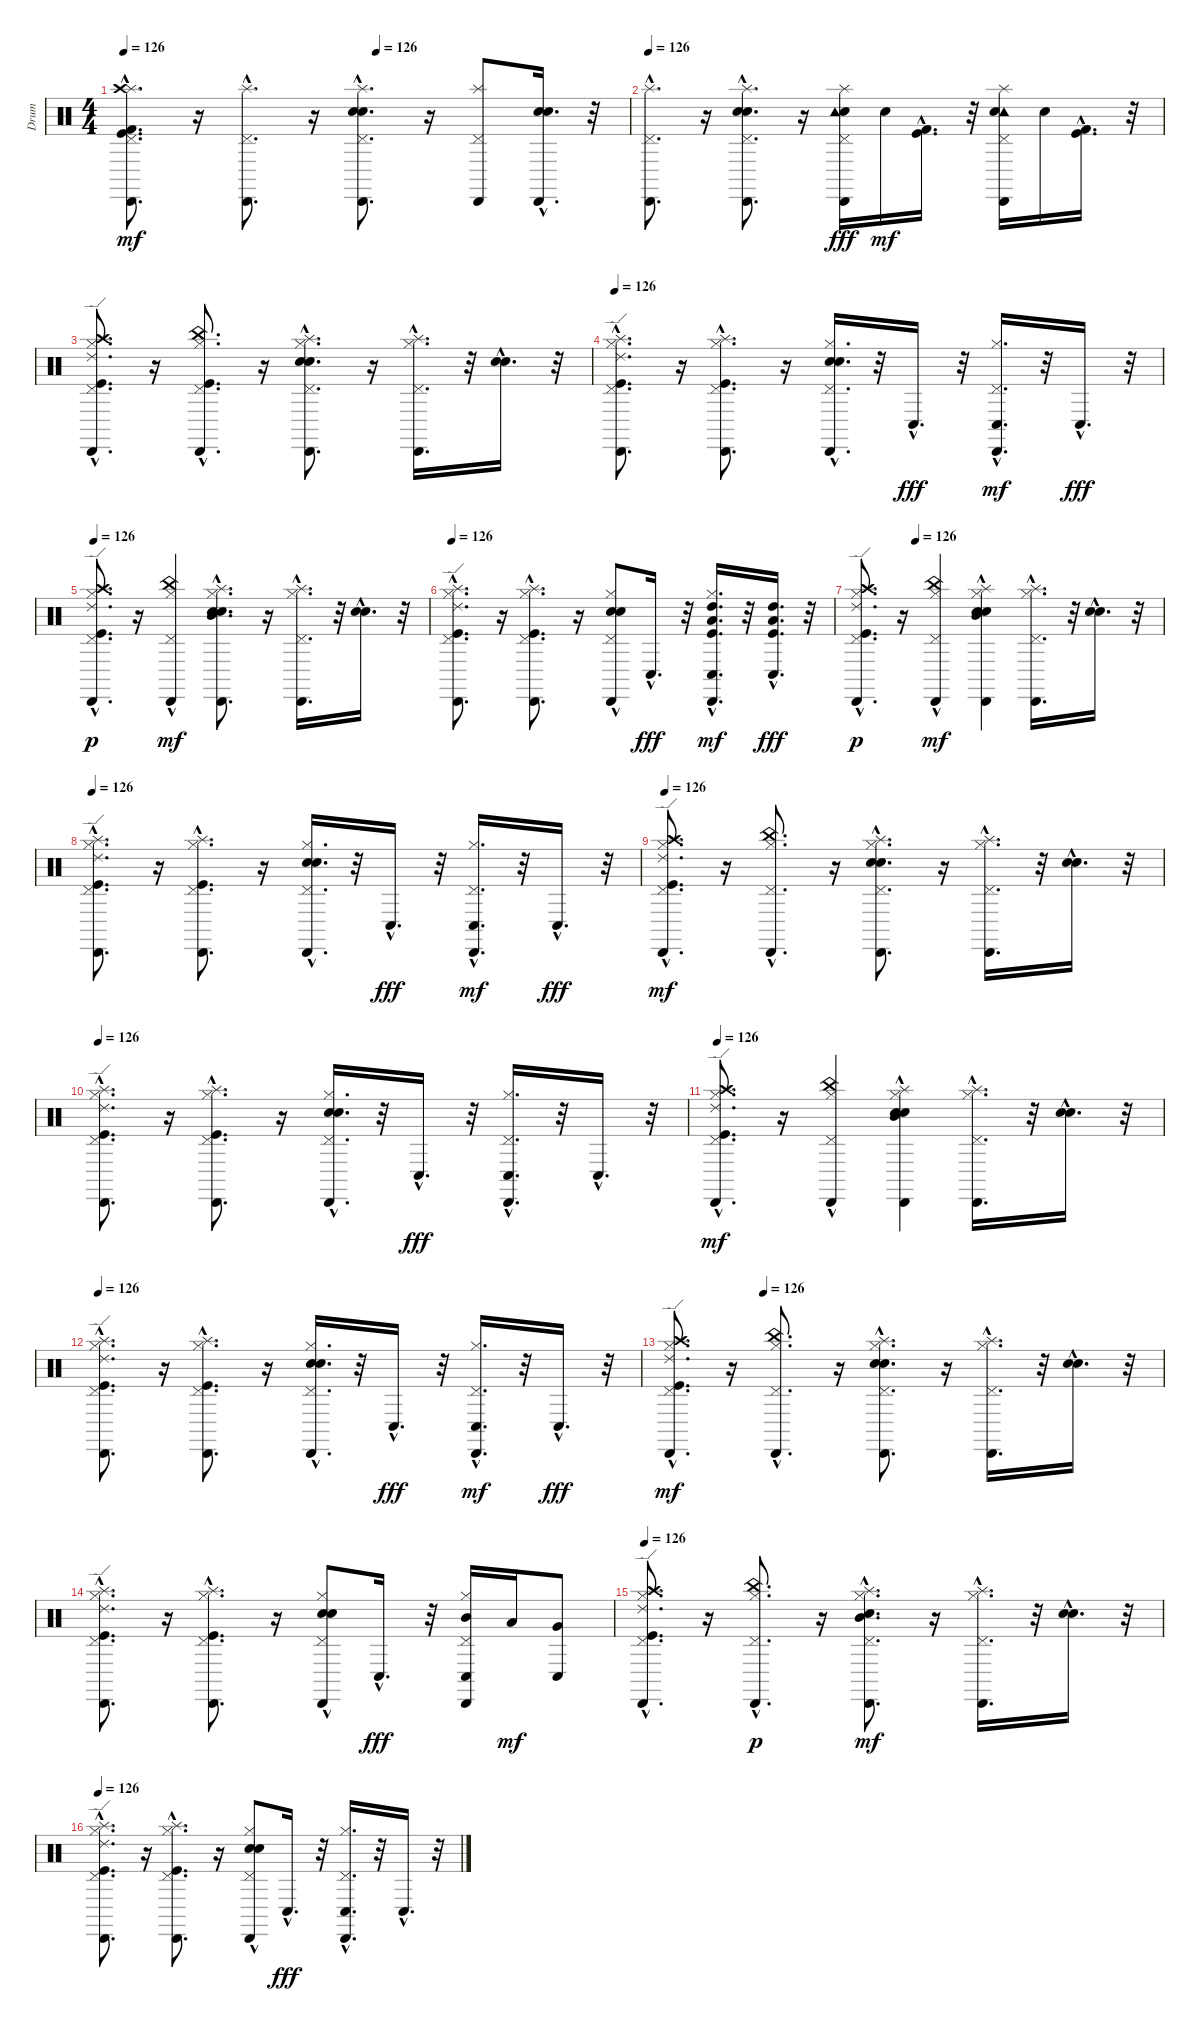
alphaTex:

\track ("Drum" "Drum") {instrument percussion}
\staff {score}
\articulation defaults
\ts (4 4)
\tempo 126
\tempo (126 0.5)
\clef neutral
\ks c
("Splash (hit)"{hac} "Kick (hit) 2"{hac} "Cabasa (hit)"{hac} "Crash high (hit)"{hac} "Pedal Hi-Hat (hit)"{hac} "Kick (hit)"{hac}).8{d dy mf} r.16 ("Splash (hit)"{hac} "Cabasa (hit)"{hac} "Pedal Hi-Hat (hit)"{hac}).8{d} r.16 ("Splash (hit)"{hac} "Electric Snare (hit)"{hac} "Cabasa (hit)"{hac} "Snare (hit) 2"{hac} "Pedal Hi-Hat (hit)"{hac}).8{d} r.16 ("Splash (hit)" "Cabasa (hit)" "Pedal Hi-Hat (hit)").8 ("Electric Snare (hit)"{hac} "Cabasa (hit)"{hac} "Snare (hit) 2"{hac}).16{d} r.32 |
\tempo 126
("Splash (hit)"{hac} "Cabasa (hit)"{hac} "Pedal Hi-Hat (hit)"{hac}).8{d} r.16 ("Splash (hit)"{hac} "Cabasa (hit)"{hac} "Pedal Hi-Hat (hit)"{hac} "Electric Snare (hit)"{hac} "Snare (hit) 2"{hac}).8{d} r.16 ("Snare (hit) 2" "Splash (hit)" "Cabasa (hit)" "Pedal Hi-Hat (hit)" "Tambourine (hit)").16{dy fff} "Snare (hit) 2".16{dy mf} ("Kick (hit)"{hac} "Kick (hit) 2"{hac}).16{d} r.32 ("Tambourine (hit)" "Pedal Hi-Hat (hit)" "Cabasa (hit)" "Splash (hit)" "Snare (hit) 2").16 "Snare (hit) 2".16 ("Kick (hit)"{hac} "Kick (hit) 2"{hac}).16{d} r.32 |
("Hi-Hat (closed)"{hac} "Cabasa (hit)"{hac} "Pedal Hi-Hat (hit)"{hac} "Ride (edge) 2"{hac} "Kick (hit)"{hac} "Crash high (hit)"{hac}).8{d} r.16 ("Cabasa (hit)"{hac} "Kick (hit)"{hac} "Hi-Hat (closed)"{hac} "Pedal Hi-Hat (hit)"{hac} "China (hit)"{hac}).8{d} r.16 ("Snare (hit) 2"{hac} "Cabasa (hit)"{hac} "Electric Snare (hit)"{hac} "Splash (hit)"{hac} "Pedal Hi-Hat (hit)"{hac} "Hi-Hat (closed)"{hac}).8{d} r.16 ("Hi-Hat (closed)"{hac} "Cabasa (hit)"{hac} "Pedal Hi-Hat (hit)"{hac} "Splash (hit)"{hac}).16{d} r.32 ("Snare (hit) 2"{hac} "Electric Snare (hit)"{hac}).16{d} r.32 |
\tempo 126
("Pedal Hi-Hat (hit)"{hac} "Kick (hit)"{hac} "Splash (hit)"{hac} "Hi-Hat (closed)"{hac} "Cabasa (hit)"{hac} "Ride (edge) 2"{hac}).8{d} r.16 ("Pedal Hi-Hat (hit)"{hac} "Splash (hit)"{hac} "Kick (hit)"{hac} "Hi-Hat (closed)"{hac} "Cabasa (hit)"{hac}).8{d} r.16 ("Cabasa (hit)"{hac} "Electric Snare (hit)"{hac} "Snare (hit) 2"{hac} "Pedal Hi-Hat (hit)"{hac} "Hi-Hat (closed)"{hac}).16{d} r.32 "Conga low (hit)"{hac}.16{d dy fff} r.32 ("Pedal Hi-Hat (hit)"{hac} "Conga low (hit)"{hac} "Hi-Hat (closed)"{hac} "Cabasa (hit)"{hac}).16{d dy mf} r.32 "Conga low (hit)"{hac}.16{d dy fff} r.32 |
\tempo 126
("Cabasa (hit)"{hac} "Ride (edge) 2"{hac} "Hi-Hat (closed)"{hac} "Kick (hit)"{hac} "Pedal Hi-Hat (hit)"{hac} "Crash high (hit)"{hac}).8{d dy p} r.16 ("China (hit)"{hac} "Cabasa (hit)"{hac} "Pedal Hi-Hat (hit)"{hac} "Hi-Hat (closed)"{hac}).4{dy mf} ("Electric Snare (hit)"{hac} "Snare (hit) 2"{hac} "Cabasa (hit)"{hac} "Splash (hit)"{hac} "Mid Tom (hit)"{hac} "Hi-Hat (closed)"{hac}).8{d} r.16 ("Cabasa (hit)"{hac} "Splash (hit)"{hac} "Hi-Hat (closed)"{hac} "Pedal Hi-Hat (hit)"{hac}).16{d} r.32 ("Snare (hit) 2"{hac} "Electric Snare (hit)"{hac}).16{d} r.32 |
\tempo 126
("Ride (edge) 2"{hac} "Splash (hit)"{hac} "Pedal Hi-Hat (hit)"{hac} "Cabasa (hit)"{hac} "Hi-Hat (closed)"{hac} "Kick (hit)"{hac}).8{d} r.16 ("Splash (hit)"{hac} "Cabasa (hit)"{hac} "Kick (hit)"{hac} "Hi-Hat (closed)"{hac} "Pedal Hi-Hat (hit)"{hac}).8{d} r.16 ("Snare (hit) 2"{hac} "Electric Snare (hit)"{hac} "Cabasa (hit)"{hac} "Pedal Hi-Hat (hit)" "Hi-Hat (closed)"{hac}).8 "Conga low (hit)"{hac}.16{d dy fff} r.32 ("High Tom (hit)"{hac} "Cabasa (hit)"{hac} "Kick (hit)"{hac} "Low Tom (hit)"{hac} "Conga low (hit)"{hac} "Hi-Hat (closed)"{hac}).16{d dy mf} r.32 ("Kick (hit)"{hac} "Conga low (hit)"{hac} "Low Tom (hit)"{hac} "High Tom (hit)"{hac}).16{d dy fff} r.32 |
\tempo (126 0.1875)
("Ride (edge) 2"{hac} "Cabasa (hit)"{hac} "Hi-Hat (closed)"{hac} "Pedal Hi-Hat (hit)"{hac} "Kick (hit)"{hac} "Crash high (hit)"{hac}).8{d dy p} r.16 ("China (hit)"{hac} "Cabasa (hit)"{hac} "Hi-Hat (closed)"{hac} "Pedal Hi-Hat (hit)"{hac}).4{dy mf} ("Splash (hit)"{hac} "Electric Snare (hit)"{hac} "Snare (hit) 2"{hac} "Cabasa (hit)"{hac} "Hi-Hat (closed)"{hac} "Mid Tom (hit)").4 ("Splash (hit)"{hac} "Cabasa (hit)"{hac} "Hi-Hat (closed)"{hac} "Pedal Hi-Hat (hit)"{hac}).16{d} r.32 ("Snare (hit) 2"{hac} "Electric Snare (hit)"{hac}).16{d} r.32 |
\tempo 126
("Splash (hit)"{hac} "Pedal Hi-Hat (hit)"{hac} "Kick (hit)"{hac} "Hi-Hat (closed)"{hac} "Cabasa (hit)"{hac} "Ride (edge) 2"{hac}).8{d} r.16 ("Splash (hit)"{hac} "Pedal Hi-Hat (hit)"{hac} "Kick (hit)"{hac} "Hi-Hat (closed)"{hac} "Cabasa (hit)"{hac}).8{d} r.16 ("Snare (hit) 2"{hac} "Electric Snare (hit)"{hac} "Cabasa (hit)"{hac} "Pedal Hi-Hat (hit)"{hac} "Hi-Hat (closed)"{hac}).16{d} r.32 "Conga low (hit)"{hac}.16{d dy fff} r.32 ("Conga low (hit)"{hac} "Pedal Hi-Hat (hit)"{hac} "Hi-Hat (closed)"{hac} "Cabasa (hit)"{hac}).16{d dy mf} r.32 "Conga low (hit)"{hac}.16{d dy fff} r.32 |
\tempo 126
("Crash high (hit)"{hac} "Ride (edge) 2"{hac} "Cabasa (hit)"{hac} "Hi-Hat (closed)"{hac} "Kick (hit)"{hac} "Pedal Hi-Hat (hit)"{hac}).8{d dy mf} r.16 ("China (hit)"{hac} "Cabasa (hit)"{hac} "Hi-Hat (closed)"{hac} "Pedal Hi-Hat (hit)"{hac}).8{d} r.16 ("Splash (hit)"{hac} "Snare (hit) 2"{hac} "Electric Snare (hit)"{hac} "Cabasa (hit)"{hac} "Hi-Hat (closed)"{hac} "Pedal Hi-Hat (hit)"{hac}).8{d} r.16 ("Splash (hit)"{hac} "Cabasa (hit)"{hac} "Hi-Hat (closed)"{hac} "Pedal Hi-Hat (hit)"{hac}).16{d} r.32 ("Snare (hit) 2"{hac} "Electric Snare (hit)"{hac}).16{d} r.32 |
\tempo 126
("Splash (hit)"{hac} "Ride (edge) 2"{hac} "Cabasa (hit)"{hac} "Hi-Hat (closed)"{hac} "Kick (hit)"{hac} "Pedal Hi-Hat (hit)"{hac}).8{d} r.16 ("Splash (hit)"{hac} "Cabasa (hit)"{hac} "Hi-Hat (closed)"{hac} "Kick (hit)"{hac} "Pedal Hi-Hat (hit)"{hac}).8{d} r.16 ("Snare (hit) 2"{hac} "Electric Snare (hit)"{hac} "Hi-Hat (closed)"{hac} "Pedal Hi-Hat (hit)"{hac} "Cabasa (hit)"{hac}).16{d} r.32 "Conga low (hit)"{hac}.16{d dy fff} r.32 ("Cabasa (hit)"{hac} "Hi-Hat (closed)"{hac} "Pedal Hi-Hat (hit)"{hac} "Conga low (hit)"{hac}).16{d} r.32 "Conga low (hit)"{hac}.16{d} r.32 |
\tempo 126
("Crash high (hit)"{hac} "Ride (edge) 2"{hac} "Cabasa (hit)"{hac} "Hi-Hat (closed)"{hac} "Pedal Hi-Hat (hit)"{hac} "Kick (hit)"{hac}).8{d dy mf} r.16 ("China (hit)"{hac} "Cabasa (hit)"{hac} "Hi-Hat (closed)"{hac} "Pedal Hi-Hat (hit)"{hac}).4 ("Splash (hit)"{hac} "Snare (hit) 2"{hac} "Electric Snare (hit)"{hac} "Cabasa (hit)"{hac} "Hi-Hat (closed)"{hac} "Mid Tom (hit)").4 ("Splash (hit)"{hac} "Cabasa (hit)"{hac} "Hi-Hat (closed)"{hac} "Pedal Hi-Hat (hit)"{hac}).16{d} r.32 ("Snare (hit) 2"{hac} "Electric Snare (hit)"{hac}).16{d} r.32 |
\tempo 126
("Splash (hit)"{hac} "Pedal Hi-Hat (hit)"{hac} "Kick (hit)"{hac} "Hi-Hat (closed)"{hac} "Cabasa (hit)"{hac} "Ride (edge) 2"{hac}).8{d} r.16 ("Splash (hit)"{hac} "Pedal Hi-Hat (hit)"{hac} "Kick (hit)"{hac} "Hi-Hat (closed)"{hac} "Cabasa (hit)"{hac}).8{d} r.16 ("Snare (hit) 2"{hac} "Electric Snare (hit)"{hac} "Cabasa (hit)"{hac} "Pedal Hi-Hat (hit)"{hac} "Hi-Hat (closed)"{hac}).16{d} r.32 "Conga low (hit)"{hac}.16{d dy fff} r.32 ("Conga low (hit)"{hac} "Pedal Hi-Hat (hit)"{hac} "Hi-Hat (closed)"{hac} "Cabasa (hit)"{hac}).16{d dy mf} r.32 "Conga low (hit)"{hac}.16{d dy fff} r.32 |
\tempo (126 0.1875)
("Crash high (hit)"{hac} "Ride (edge) 2"{hac} "Cabasa (hit)"{hac} "Hi-Hat (closed)"{hac} "Kick (hit)"{hac} "Pedal Hi-Hat (hit)"{hac}).8{d dy mf} r.16 ("China (hit)"{hac} "Cabasa (hit)"{hac} "Hi-Hat (closed)"{hac} "Pedal Hi-Hat (hit)"{hac}).8{d} r.16 ("Splash (hit)"{hac} "Snare (hit) 2"{hac} "Electric Snare (hit)"{hac} "Cabasa (hit)"{hac} "Hi-Hat (closed)"{hac} "Pedal Hi-Hat (hit)"{hac}).8{d} r.16 ("Splash (hit)"{hac} "Cabasa (hit)"{hac} "Hi-Hat (closed)"{hac} "Pedal Hi-Hat (hit)"{hac}).16{d} r.32 ("Snare (hit) 2"{hac} "Electric Snare (hit)"{hac}).16{d} r.32 |
("Splash (hit)"{hac} "Ride (edge) 2"{hac} "Kick (hit)"{hac} "Hi-Hat (closed)"{hac} "Pedal Hi-Hat (hit)"{hac} "Cabasa (hit)"{hac}).8{d} r.16 ("Splash (hit)"{hac} "Cabasa (hit)"{hac} "Kick (hit)"{hac} "Pedal Hi-Hat (hit)"{hac} "Hi-Hat (closed)"{hac}).8{d} r.16 ("Snare (hit) 2" "Hi-Hat (closed)"{hac} "Electric Snare (hit)"{hac} "Pedal Hi-Hat (hit)"{hac} "Cabasa (hit)"{hac}).8 "Conga low (hit)"{hac}.16{d dy fff} r.32 ("Mid Tom (hit)" "Cabasa (hit)" "Hi-Hat (closed)" "Pedal Hi-Hat (hit)" "Conga low (hit)").16 "Low Tom (hit)".16{dy mf} ("Conga low (hit)" "Very Low Tom (hit)").8 |
\tempo 126
("Crash high (hit)"{hac} "Kick (hit)"{hac} "Pedal Hi-Hat (hit)"{hac} "Hi-Hat (closed)"{hac} "Cabasa (hit)"{hac} "Ride (edge) 2"{hac}).8{d} r.16 ("Pedal Hi-Hat (hit)"{hac} "Hi-Hat (closed)"{hac} "Cabasa (hit)"{hac} "China (hit)"{hac}).8{d dy p} r.16 ("Splash (hit)"{hac} "Pedal Hi-Hat (hit)"{hac} "Mid Tom (hit)"{hac} "Hi-Hat (closed)"{hac} "Cabasa (hit)"{hac} "Electric Snare (hit)"{hac}).8{d dy mf} r.16 ("Splash (hit)"{hac} "Pedal Hi-Hat (hit)"{hac} "Hi-Hat (closed)"{hac} "Cabasa (hit)"{hac}).16{d} r.32 ("Electric Snare (hit)"{hac} "Snare (hit) 2"{hac}).16{d} r.32 |
\tempo 126
("Splash (hit)"{hac} "Ride (edge) 2"{hac} "Cabasa (hit)"{hac} "Hi-Hat (closed)"{hac} "Kick (hit)"{hac} "Pedal Hi-Hat (hit)"{hac}).8{d} r.16 ("Splash (hit)"{hac} "Cabasa (hit)"{hac} "Hi-Hat (closed)"{hac} "Kick (hit)"{hac} "Pedal Hi-Hat (hit)"{hac}).8{d} r.16 ("Hi-Hat (closed)"{hac} "Pedal Hi-Hat (hit)"{hac} "Cabasa (hit)"{hac} "Electric Snare (hit)" "Snare (hit) 2").8 "Conga low (hit)"{hac}.16{d dy fff} r.32 ("Cabasa (hit)"{hac} "Hi-Hat (closed)"{hac} "Pedal Hi-Hat (hit)"{hac} "Conga low (hit)"{hac}).16{d} r.32 "Conga low (hit)"{hac}.16{d} r.32
